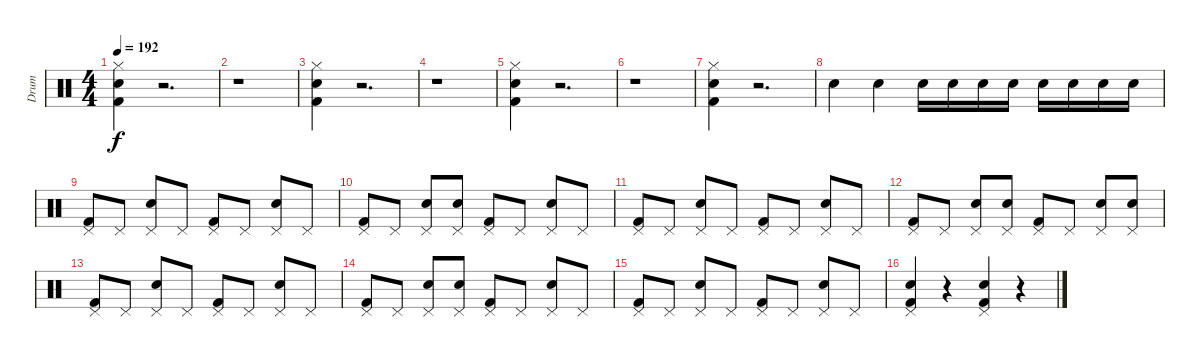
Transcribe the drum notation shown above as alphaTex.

\track ("Drum" "Drum") {instrument percussion}
\staff {score}
\articulation defaults
\ts (4 4)
\tempo 192
\clef neutral
\ks c
("Hi-Hat (closed)" "Electric Snare (hit)" "Kick (hit) 2").4{dy f} r.2{d} |
r.1 |
("Hi-Hat (closed)" "Electric Snare (hit)" "Kick (hit) 2").4 r.2{d} |
r.1 |
("Hi-Hat (closed)" "Electric Snare (hit)" "Kick (hit) 2").4 r.2{d} |
r.1 |
("Hi-Hat (closed)" "Electric Snare (hit)" "Kick (hit) 2").4 r.2{d} |
"Electric Snare (hit)".4 "Electric Snare (hit)".4 "Electric Snare (hit)".16 "Electric Snare (hit)".16 "Electric Snare (hit)".16 "Electric Snare (hit)".16 "Electric Snare (hit)".16 "Electric Snare (hit)".16 "Electric Snare (hit)".16 "Electric Snare (hit)".16 |
("Pedal Hi-Hat (hit)" "Kick (hit) 2").8 "Pedal Hi-Hat (hit)".8 ("Pedal Hi-Hat (hit)" "Electric Snare (hit)").8 "Pedal Hi-Hat (hit)".8 ("Pedal Hi-Hat (hit)" "Kick (hit) 2").8 "Pedal Hi-Hat (hit)".8 ("Pedal Hi-Hat (hit)" "Electric Snare (hit)").8 "Pedal Hi-Hat (hit)".8 |
("Pedal Hi-Hat (hit)" "Kick (hit) 2").8 "Pedal Hi-Hat (hit)".8 ("Pedal Hi-Hat (hit)" "Electric Snare (hit)").8 ("Pedal Hi-Hat (hit)" "Electric Snare (hit)").8 ("Pedal Hi-Hat (hit)" "Kick (hit) 2").8 "Pedal Hi-Hat (hit)".8 ("Pedal Hi-Hat (hit)" "Electric Snare (hit)").8 "Pedal Hi-Hat (hit)".8 |
("Pedal Hi-Hat (hit)" "Kick (hit) 2").8 "Pedal Hi-Hat (hit)".8 ("Pedal Hi-Hat (hit)" "Electric Snare (hit)").8 "Pedal Hi-Hat (hit)".8 ("Pedal Hi-Hat (hit)" "Kick (hit) 2").8 "Pedal Hi-Hat (hit)".8 ("Pedal Hi-Hat (hit)" "Electric Snare (hit)").8 "Pedal Hi-Hat (hit)".8 |
("Pedal Hi-Hat (hit)" "Kick (hit) 2").8 "Pedal Hi-Hat (hit)".8 ("Pedal Hi-Hat (hit)" "Electric Snare (hit)").8 ("Pedal Hi-Hat (hit)" "Electric Snare (hit)").8 ("Pedal Hi-Hat (hit)" "Kick (hit) 2").8 "Pedal Hi-Hat (hit)".8 ("Pedal Hi-Hat (hit)" "Electric Snare (hit)").8 ("Pedal Hi-Hat (hit)" "Electric Snare (hit)").8 |
("Pedal Hi-Hat (hit)" "Kick (hit) 2").8 "Pedal Hi-Hat (hit)".8 ("Pedal Hi-Hat (hit)" "Electric Snare (hit)").8 "Pedal Hi-Hat (hit)".8 ("Pedal Hi-Hat (hit)" "Kick (hit) 2").8 "Pedal Hi-Hat (hit)".8 ("Pedal Hi-Hat (hit)" "Electric Snare (hit)").8 "Pedal Hi-Hat (hit)".8 |
("Pedal Hi-Hat (hit)" "Kick (hit) 2").8 "Pedal Hi-Hat (hit)".8 ("Pedal Hi-Hat (hit)" "Electric Snare (hit)").8 ("Pedal Hi-Hat (hit)" "Electric Snare (hit)").8 ("Pedal Hi-Hat (hit)" "Kick (hit) 2").8 "Pedal Hi-Hat (hit)".8 ("Pedal Hi-Hat (hit)" "Electric Snare (hit)").8 "Pedal Hi-Hat (hit)".8 |
("Pedal Hi-Hat (hit)" "Kick (hit) 2").8 "Pedal Hi-Hat (hit)".8 ("Pedal Hi-Hat (hit)" "Electric Snare (hit)").8 "Pedal Hi-Hat (hit)".8 ("Pedal Hi-Hat (hit)" "Kick (hit) 2").8 "Pedal Hi-Hat (hit)".8 ("Pedal Hi-Hat (hit)" "Electric Snare (hit)").8 "Pedal Hi-Hat (hit)".8 |
("Pedal Hi-Hat (hit)" "Electric Snare (hit)" "Kick (hit) 2").4 r.4 ("Pedal Hi-Hat (hit)" "Electric Snare (hit)" "Kick (hit) 2").4 r.4
